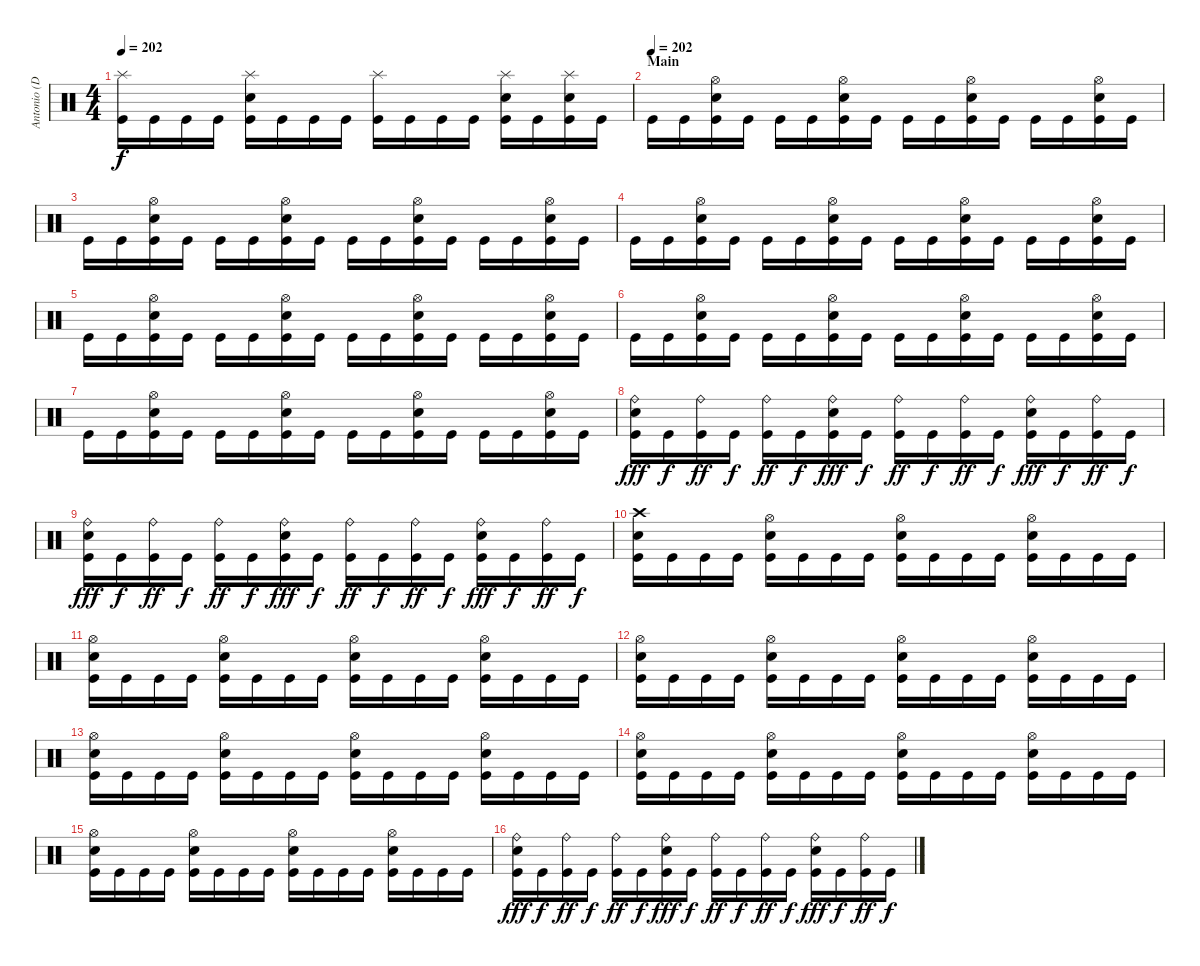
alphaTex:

\track ("Antonio (Drums)" "Antonio (D") {instrument percussion}
\staff {score}
\articulation defaults
\ts (4 4)
\tempo 202
\clef neutral
\ks c
("Splash (hit)" "Kick (hit)").16{dy f} "Kick (hit)".16 "Kick (hit)".16 "Kick (hit)".16 ("Splash (hit)" "Electric Snare (hit)" "Kick (hit)").16 "Kick (hit)".16 "Kick (hit)".16 "Kick (hit)".16 ("Splash (hit)" "Kick (hit)").16 "Kick (hit)".16 "Kick (hit)".16 "Kick (hit)".16 ("Splash (hit)" "Electric Snare (hit)" "Kick (hit)").16 "Kick (hit)".16 ("Splash (hit)" "Electric Snare (hit)" "Kick (hit)").16 "Kick (hit)".16 |
\section ("" "Main")
\tempo (202)
"Kick (hit)".16 "Kick (hit)".16 ("Hi-Hat (open)" "Electric Snare (hit)" "Kick (hit)").16 "Kick (hit)".16 "Kick (hit)".16 "Kick (hit)".16 ("Hi-Hat (open)" "Electric Snare (hit)" "Kick (hit)").16 "Kick (hit)".16 "Kick (hit)".16 "Kick (hit)".16 ("Hi-Hat (open)" "Electric Snare (hit)" "Kick (hit)").16 "Kick (hit)".16 "Kick (hit)".16 "Kick (hit)".16 ("Hi-Hat (open)" "Electric Snare (hit)" "Kick (hit)").16 "Kick (hit)".16 |
"Kick (hit)".16 "Kick (hit)".16 ("Hi-Hat (open)" "Electric Snare (hit)" "Kick (hit)").16 "Kick (hit)".16 "Kick (hit)".16 "Kick (hit)".16 ("Hi-Hat (open)" "Electric Snare (hit)" "Kick (hit)").16 "Kick (hit)".16 "Kick (hit)".16 "Kick (hit)".16 ("Hi-Hat (open)" "Electric Snare (hit)" "Kick (hit)").16 "Kick (hit)".16 "Kick (hit)".16 "Kick (hit)".16 ("Hi-Hat (open)" "Electric Snare (hit)" "Kick (hit)").16 "Kick (hit)".16 |
"Kick (hit)".16 "Kick (hit)".16 ("Hi-Hat (open)" "Electric Snare (hit)" "Kick (hit)").16 "Kick (hit)".16 "Kick (hit)".16 "Kick (hit)".16 ("Hi-Hat (open)" "Electric Snare (hit)" "Kick (hit)").16 "Kick (hit)".16 "Kick (hit)".16 "Kick (hit)".16 ("Hi-Hat (open)" "Electric Snare (hit)" "Kick (hit)").16 "Kick (hit)".16 "Kick (hit)".16 "Kick (hit)".16 ("Hi-Hat (open)" "Electric Snare (hit)" "Kick (hit)").16 "Kick (hit)".16 |
"Kick (hit)".16 "Kick (hit)".16 ("Hi-Hat (open)" "Electric Snare (hit)" "Kick (hit)").16 "Kick (hit)".16 "Kick (hit)".16 "Kick (hit)".16 ("Hi-Hat (open)" "Electric Snare (hit)" "Kick (hit)").16 "Kick (hit)".16 "Kick (hit)".16 "Kick (hit)".16 ("Hi-Hat (open)" "Electric Snare (hit)" "Kick (hit)").16 "Kick (hit)".16 "Kick (hit)".16 "Kick (hit)".16 ("Hi-Hat (open)" "Electric Snare (hit)" "Kick (hit)").16 "Kick (hit)".16 |
"Kick (hit)".16 "Kick (hit)".16 ("Hi-Hat (open)" "Electric Snare (hit)" "Kick (hit)").16 "Kick (hit)".16 "Kick (hit)".16 "Kick (hit)".16 ("Hi-Hat (open)" "Electric Snare (hit)" "Kick (hit)").16 "Kick (hit)".16 "Kick (hit)".16 "Kick (hit)".16 ("Hi-Hat (open)" "Electric Snare (hit)" "Kick (hit)").16 "Kick (hit)".16 "Kick (hit)".16 "Kick (hit)".16 ("Hi-Hat (open)" "Electric Snare (hit)" "Kick (hit)").16 "Kick (hit)".16 |
"Kick (hit)".16 "Kick (hit)".16 ("Hi-Hat (open)" "Electric Snare (hit)" "Kick (hit)").16 "Kick (hit)".16 "Kick (hit)".16 "Kick (hit)".16 ("Hi-Hat (open)" "Electric Snare (hit)" "Kick (hit)").16 "Kick (hit)".16 "Kick (hit)".16 "Kick (hit)".16 ("Hi-Hat (open)" "Electric Snare (hit)" "Kick (hit)").16 "Kick (hit)".16 "Kick (hit)".16 "Kick (hit)".16 ("Hi-Hat (open)" "Electric Snare (hit)" "Kick (hit)").16 "Kick (hit)".16 |
("Ride (bell)" "Electric Snare (hit)" "Kick (hit)").16{dy fff} "Kick (hit)".16{dy f} ("Ride (bell)" "Kick (hit)").16{dy ff} "Kick (hit)".16{dy f} ("Ride (bell)" "Kick (hit)").16{dy ff} "Kick (hit)".16{dy f} ("Ride (bell)" "Electric Snare (hit)" "Kick (hit)").16{dy fff} "Kick (hit)".16{dy f} ("Ride (bell)" "Kick (hit)").16{dy ff} "Kick (hit)".16{dy f} ("Ride (bell)" "Kick (hit)").16{dy ff} "Kick (hit)".16{dy f} ("Ride (bell)" "Electric Snare (hit)" "Kick (hit)").16{dy fff} "Kick (hit)".16{dy f} ("Ride (bell)" "Kick (hit)").16{dy ff} "Kick (hit)".16{dy f} |
("Ride (bell)" "Electric Snare (hit)" "Kick (hit)").16{dy fff} "Kick (hit)".16{dy f} ("Ride (bell)" "Kick (hit)").16{dy ff} "Kick (hit)".16{dy f} ("Ride (bell)" "Kick (hit)").16{dy ff} "Kick (hit)".16{dy f} ("Ride (bell)" "Electric Snare (hit)" "Kick (hit)").16{dy fff} "Kick (hit)".16{dy f} ("Ride (bell)" "Kick (hit)").16{dy ff} "Kick (hit)".16{dy f} ("Ride (bell)" "Kick (hit)").16{dy ff} "Kick (hit)".16{dy f} ("Ride (bell)" "Electric Snare (hit)" "Kick (hit)").16{dy fff} "Kick (hit)".16{dy f} ("Ride (bell)" "Kick (hit)").16{dy ff} "Kick (hit)".16{dy f} |
("Crash high (hit)" "Electric Snare (hit)" "Kick (hit)").16 "Kick (hit)".16 "Kick (hit)".16 "Kick (hit)".16 ("Hi-Hat (open)" "Electric Snare (hit)" "Kick (hit)").16 "Kick (hit)".16 "Kick (hit)".16 "Kick (hit)".16 ("Hi-Hat (open)" "Electric Snare (hit)" "Kick (hit)").16 "Kick (hit)".16 "Kick (hit)".16 "Kick (hit)".16 ("Hi-Hat (open)" "Electric Snare (hit)" "Kick (hit)").16 "Kick (hit)".16 "Kick (hit)".16 "Kick (hit)".16 |
("Hi-Hat (open)" "Electric Snare (hit)" "Kick (hit)").16 "Kick (hit)".16 "Kick (hit)".16 "Kick (hit)".16 ("Hi-Hat (open)" "Electric Snare (hit)" "Kick (hit)").16 "Kick (hit)".16 "Kick (hit)".16 "Kick (hit)".16 ("Hi-Hat (open)" "Electric Snare (hit)" "Kick (hit)").16 "Kick (hit)".16 "Kick (hit)".16 "Kick (hit)".16 ("Hi-Hat (open)" "Electric Snare (hit)" "Kick (hit)").16 "Kick (hit)".16 "Kick (hit)".16 "Kick (hit)".16 |
("Hi-Hat (open)" "Electric Snare (hit)" "Kick (hit)").16 "Kick (hit)".16 "Kick (hit)".16 "Kick (hit)".16 ("Hi-Hat (open)" "Electric Snare (hit)" "Kick (hit)").16 "Kick (hit)".16 "Kick (hit)".16 "Kick (hit)".16 ("Hi-Hat (open)" "Electric Snare (hit)" "Kick (hit)").16 "Kick (hit)".16 "Kick (hit)".16 "Kick (hit)".16 ("Hi-Hat (open)" "Electric Snare (hit)" "Kick (hit)").16 "Kick (hit)".16 "Kick (hit)".16 "Kick (hit)".16 |
("Hi-Hat (open)" "Electric Snare (hit)" "Kick (hit)").16 "Kick (hit)".16 "Kick (hit)".16 "Kick (hit)".16 ("Hi-Hat (open)" "Electric Snare (hit)" "Kick (hit)").16 "Kick (hit)".16 "Kick (hit)".16 "Kick (hit)".16 ("Hi-Hat (open)" "Electric Snare (hit)" "Kick (hit)").16 "Kick (hit)".16 "Kick (hit)".16 "Kick (hit)".16 ("Hi-Hat (open)" "Electric Snare (hit)" "Kick (hit)").16 "Kick (hit)".16 "Kick (hit)".16 "Kick (hit)".16 |
("Hi-Hat (open)" "Electric Snare (hit)" "Kick (hit)").16 "Kick (hit)".16 "Kick (hit)".16 "Kick (hit)".16 ("Hi-Hat (open)" "Electric Snare (hit)" "Kick (hit)").16 "Kick (hit)".16 "Kick (hit)".16 "Kick (hit)".16 ("Hi-Hat (open)" "Electric Snare (hit)" "Kick (hit)").16 "Kick (hit)".16 "Kick (hit)".16 "Kick (hit)".16 ("Hi-Hat (open)" "Electric Snare (hit)" "Kick (hit)").16 "Kick (hit)".16 "Kick (hit)".16 "Kick (hit)".16 |
("Hi-Hat (open)" "Electric Snare (hit)" "Kick (hit)").16 "Kick (hit)".16 "Kick (hit)".16 "Kick (hit)".16 ("Hi-Hat (open)" "Electric Snare (hit)" "Kick (hit)").16 "Kick (hit)".16 "Kick (hit)".16 "Kick (hit)".16 ("Hi-Hat (open)" "Electric Snare (hit)" "Kick (hit)").16 "Kick (hit)".16 "Kick (hit)".16 "Kick (hit)".16 ("Hi-Hat (open)" "Electric Snare (hit)" "Kick (hit)").16 "Kick (hit)".16 "Kick (hit)".16 "Kick (hit)".16 |
("Ride (bell)" "Electric Snare (hit)" "Kick (hit)").16{dy fff} "Kick (hit)".16{dy f} ("Ride (bell)" "Kick (hit)").16{dy ff} "Kick (hit)".16{dy f} ("Ride (bell)" "Kick (hit)").16{dy ff} "Kick (hit)".16{dy f} ("Ride (bell)" "Electric Snare (hit)" "Kick (hit)").16{dy fff} "Kick (hit)".16{dy f} ("Ride (bell)" "Kick (hit)").16{dy ff} "Kick (hit)".16{dy f} ("Ride (bell)" "Kick (hit)").16{dy ff} "Kick (hit)".16{dy f} ("Ride (bell)" "Electric Snare (hit)" "Kick (hit)").16{dy fff} "Kick (hit)".16{dy f} ("Ride (bell)" "Kick (hit)").16{dy ff} "Kick (hit)".16{dy f}
